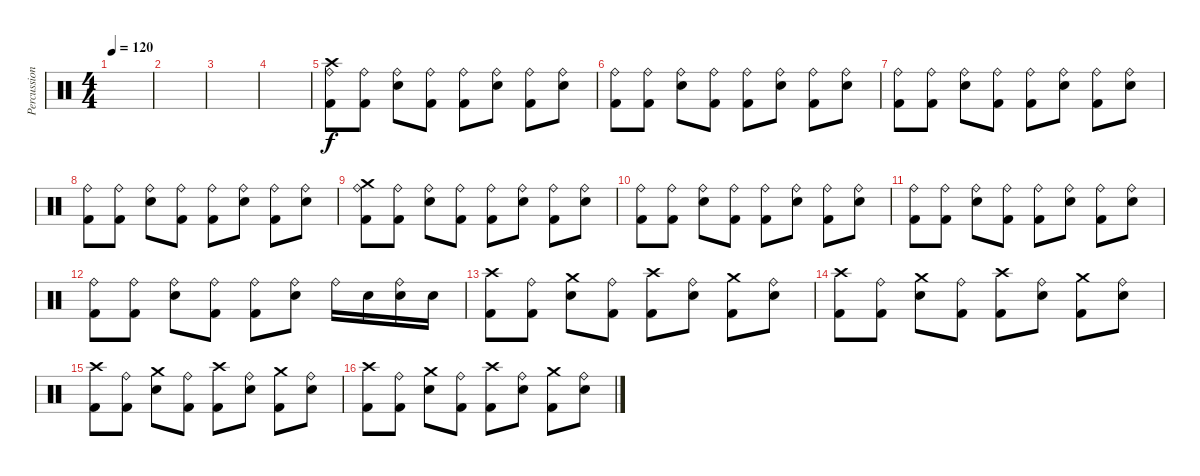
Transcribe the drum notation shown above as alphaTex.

\track ("Percussion" "Percussion") {instrument percussion}
\staff {score}
\articulation defaults
\ts (4 4)
\tempo 120
\clef neutral
\ks c
|
|
|
|
("Crash high (hit)" "Ride (bell)" "Kick (hit) 2").8 ("Ride (bell)" "Kick (hit) 2").8 ("Ride (bell)" "Snare (hit) 2").8 ("Ride (bell)" "Kick (hit) 2").8 ("Ride (bell)" "Kick (hit) 2").8 ("Ride (bell)" "Snare (hit) 2").8 ("Ride (bell)" "Kick (hit) 2").8 ("Ride (bell)" "Snare (hit) 2").8 |
("Ride (bell)" "Kick (hit) 2").8 ("Ride (bell)" "Kick (hit) 2").8 ("Ride (bell)" "Snare (hit) 2").8 ("Ride (bell)" "Kick (hit) 2").8 ("Ride (bell)" "Kick (hit) 2").8 ("Ride (bell)" "Snare (hit) 2").8 ("Ride (bell)" "Kick (hit) 2").8 ("Ride (bell)" "Snare (hit) 2").8 |
("Ride (bell)" "Kick (hit) 2").8 ("Ride (bell)" "Kick (hit) 2").8 ("Ride (bell)" "Snare (hit) 2").8 ("Ride (bell)" "Kick (hit) 2").8 ("Ride (bell)" "Kick (hit) 2").8 ("Ride (bell)" "Snare (hit) 2").8 ("Ride (bell)" "Kick (hit) 2").8 ("Ride (bell)" "Snare (hit) 2").8 |
("Ride (bell)" "Kick (hit) 2").8 ("Ride (bell)" "Kick (hit) 2").8 ("Ride (bell)" "Snare (hit) 2").8 ("Ride (bell)" "Kick (hit) 2").8 ("Ride (bell)" "Kick (hit) 2").8 ("Ride (bell)" "Snare (hit) 2").8 ("Ride (bell)" "Kick (hit) 2").8 ("Ride (bell)" "Snare (hit) 2").8 |
("Crash medium (hit)" "Ride (bell)" "Kick (hit) 2").8 ("Ride (bell)" "Kick (hit) 2").8 ("Ride (bell)" "Snare (hit) 2").8 ("Ride (bell)" "Kick (hit) 2").8 ("Ride (bell)" "Kick (hit) 2").8 ("Ride (bell)" "Snare (hit) 2").8 ("Ride (bell)" "Kick (hit) 2").8 ("Ride (bell)" "Snare (hit) 2").8 |
("Ride (bell)" "Kick (hit) 2").8 ("Ride (bell)" "Kick (hit) 2").8 ("Ride (bell)" "Snare (hit) 2").8 ("Ride (bell)" "Kick (hit) 2").8 ("Ride (bell)" "Kick (hit) 2").8 ("Ride (bell)" "Snare (hit) 2").8 ("Ride (bell)" "Kick (hit) 2").8 ("Ride (bell)" "Snare (hit) 2").8 |
("Ride (bell)" "Kick (hit) 2").8 ("Ride (bell)" "Kick (hit) 2").8 ("Ride (bell)" "Snare (hit) 2").8 ("Ride (bell)" "Kick (hit) 2").8 ("Ride (bell)" "Kick (hit) 2").8 ("Ride (bell)" "Snare (hit) 2").8 ("Ride (bell)" "Kick (hit) 2").8 ("Ride (bell)" "Snare (hit) 2").8 |
("Ride (bell)" "Kick (hit) 2").8 ("Ride (bell)" "Kick (hit) 2").8 ("Ride (bell)" "Snare (hit) 2").8 ("Ride (bell)" "Kick (hit) 2").8 ("Ride (bell)" "Kick (hit) 2").8 ("Ride (bell)" "Snare (hit) 2").8 "Ride (bell)".16 "Snare (hit) 2".16 ("Ride (bell)" "Snare (hit) 2").16 "Snare (hit) 2".16 |
("Crash high (hit)" "Kick (hit) 2").8 ("Ride (bell)" "Kick (hit) 2").8 ("Crash medium (hit)" "Snare (hit) 2").8 ("Ride (bell)" "Kick (hit) 2").8 ("Crash high (hit)" "Kick (hit) 2").8 ("Ride (bell)" "Snare (hit) 2").8 ("Crash medium (hit)" "Kick (hit) 2").8 ("Ride (bell)" "Snare (hit) 2").8 |
("Crash high (hit)" "Kick (hit) 2").8 ("Ride (bell)" "Kick (hit) 2").8 ("Crash medium (hit)" "Snare (hit) 2").8 ("Ride (bell)" "Kick (hit) 2").8 ("Crash high (hit)" "Kick (hit) 2").8 ("Ride (bell)" "Snare (hit) 2").8 ("Crash medium (hit)" "Kick (hit) 2").8 ("Ride (bell)" "Snare (hit) 2").8 |
("Crash high (hit)" "Kick (hit) 2").8 ("Ride (bell)" "Kick (hit) 2").8 ("Crash medium (hit)" "Snare (hit) 2").8 ("Ride (bell)" "Kick (hit) 2").8 ("Crash high (hit)" "Kick (hit) 2").8 ("Ride (bell)" "Snare (hit) 2").8 ("Crash medium (hit)" "Kick (hit) 2").8 ("Ride (bell)" "Snare (hit) 2").8 |
("Crash high (hit)" "Kick (hit) 2").8 ("Ride (bell)" "Kick (hit) 2").8 ("Crash medium (hit)" "Snare (hit) 2").8 ("Ride (bell)" "Kick (hit) 2").8 ("Crash high (hit)" "Kick (hit) 2").8 ("Ride (bell)" "Snare (hit) 2").8 ("Crash medium (hit)" "Kick (hit) 2").8 ("Ride (bell)" "Snare (hit) 2").8
